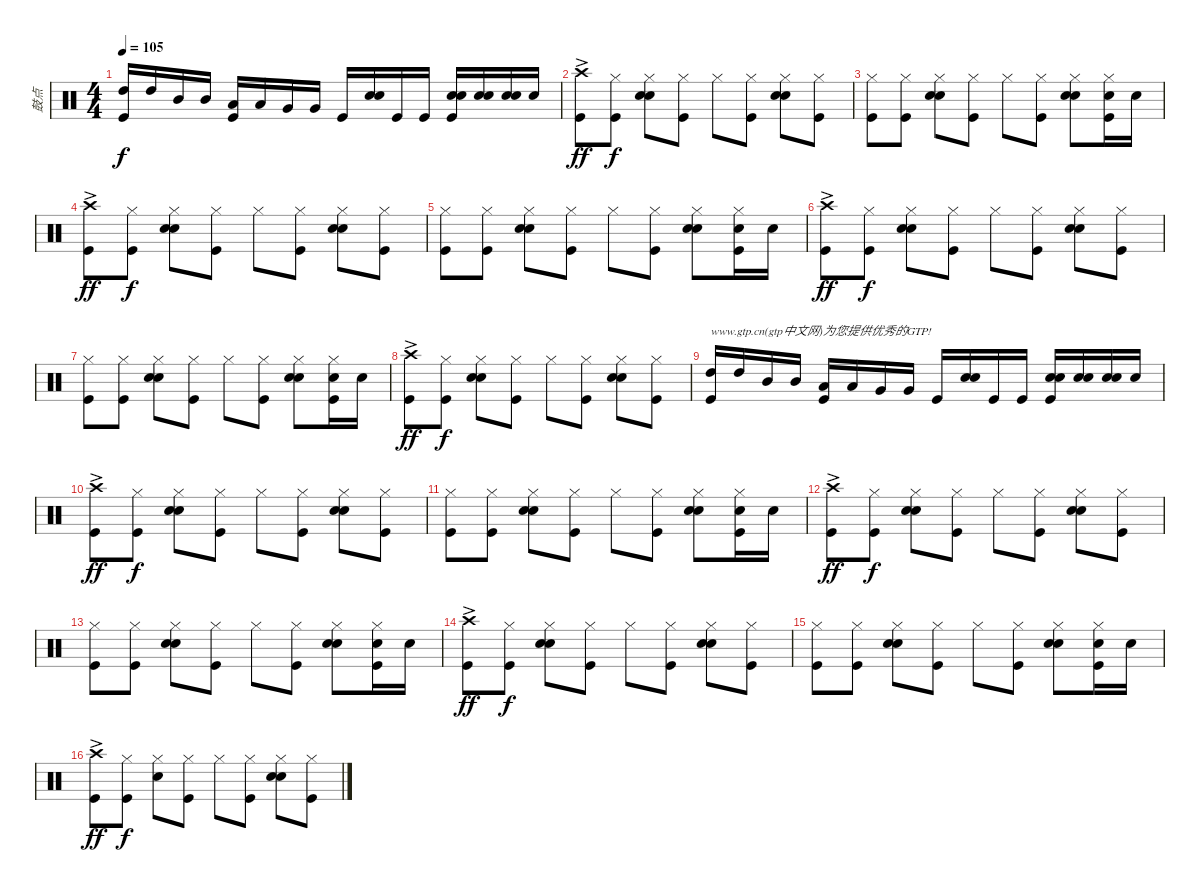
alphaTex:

\track ("鼓点" "鼓点") {instrument percussion}
\staff {score}
\articulation defaults
\ts (4 4)
\tempo 105
\clef neutral
\ks c
("High Tom (hit)" "Kick (hit)").16{dy f volume 10} "High Tom (hit)".16 "Mid Tom (hit)".16 "Mid Tom (hit)".16 ("Low Tom (hit)" "Kick (hit)").16 "Low Tom (hit)".16 "Very Low Tom (hit)".16 "Very Low Tom (hit)".16 "Kick (hit)".16 ("Electric Snare (hit)" "Snare (hit) 2").16 "Kick (hit)".16 "Kick (hit)".16 ("Snare (hit) 2" "Electric Snare (hit)" "Kick (hit)").16 ("Snare (hit) 2" "Electric Snare (hit)").16 ("Snare (hit) 2" "Electric Snare (hit)").16 "Electric Snare (hit)".16 |
("Crash high (hit)"{ac} "Kick (hit)").8{dy ff} ("Hi-Hat (closed)" "Kick (hit)").8{dy f} ("Hi-Hat (closed)" "Electric Snare (hit)" "Snare (hit) 2").8 ("Hi-Hat (closed)" "Kick (hit)").8 "Hi-Hat (closed)".8 ("Hi-Hat (closed)" "Kick (hit)").8 ("Hi-Hat (closed)" "Electric Snare (hit)" "Snare (hit) 2").8 ("Hi-Hat (closed)" "Kick (hit)").8 |
("Hi-Hat (closed)" "Kick (hit)").8 ("Hi-Hat (closed)" "Kick (hit)").8 ("Hi-Hat (closed)" "Electric Snare (hit)" "Snare (hit) 2").8 ("Hi-Hat (closed)" "Kick (hit)").8 "Hi-Hat (closed)".8 ("Hi-Hat (closed)" "Kick (hit)").8 ("Hi-Hat (closed)" "Electric Snare (hit)" "Snare (hit) 2").8 ("Hi-Hat (closed)" "Electric Snare (hit)" "Kick (hit)").16 "Electric Snare (hit)".16 |
("Crash high (hit)"{ac} "Kick (hit)").8{dy ff} ("Hi-Hat (closed)" "Kick (hit)").8{dy f} ("Hi-Hat (closed)" "Electric Snare (hit)" "Snare (hit) 2").8 ("Hi-Hat (closed)" "Kick (hit)").8 "Hi-Hat (closed)".8 ("Hi-Hat (closed)" "Kick (hit)").8 ("Hi-Hat (closed)" "Electric Snare (hit)" "Snare (hit) 2").8 ("Hi-Hat (closed)" "Kick (hit)").8 |
("Hi-Hat (closed)" "Kick (hit)").8 ("Hi-Hat (closed)" "Kick (hit)").8 ("Hi-Hat (closed)" "Electric Snare (hit)" "Snare (hit) 2").8 ("Hi-Hat (closed)" "Kick (hit)").8 "Hi-Hat (closed)".8 ("Hi-Hat (closed)" "Kick (hit)").8 ("Hi-Hat (closed)" "Electric Snare (hit)" "Snare (hit) 2").8 ("Hi-Hat (closed)" "Electric Snare (hit)" "Kick (hit)").16 "Electric Snare (hit)".16 |
("Crash high (hit)"{ac} "Kick (hit)").8{dy ff} ("Hi-Hat (closed)" "Kick (hit)").8{dy f} ("Hi-Hat (closed)" "Electric Snare (hit)" "Snare (hit) 2").8 ("Hi-Hat (closed)" "Kick (hit)").8 "Hi-Hat (closed)".8 ("Hi-Hat (closed)" "Kick (hit)").8 ("Hi-Hat (closed)" "Electric Snare (hit)" "Snare (hit) 2").8 ("Hi-Hat (closed)" "Kick (hit)").8 |
("Hi-Hat (closed)" "Kick (hit)").8 ("Hi-Hat (closed)" "Kick (hit)").8 ("Hi-Hat (closed)" "Electric Snare (hit)" "Snare (hit) 2").8 ("Hi-Hat (closed)" "Kick (hit)").8 "Hi-Hat (closed)".8 ("Hi-Hat (closed)" "Kick (hit)").8 ("Hi-Hat (closed)" "Electric Snare (hit)" "Snare (hit) 2").8 ("Hi-Hat (closed)" "Electric Snare (hit)" "Kick (hit)").16 "Electric Snare (hit)".16 |
("Crash high (hit)"{ac} "Kick (hit)").8{dy ff} ("Hi-Hat (closed)" "Kick (hit)").8{dy f} ("Hi-Hat (closed)" "Electric Snare (hit)" "Snare (hit) 2").8 ("Hi-Hat (closed)" "Kick (hit)").8 "Hi-Hat (closed)".8 ("Hi-Hat (closed)" "Kick (hit)").8 ("Hi-Hat (closed)" "Electric Snare (hit)" "Snare (hit) 2").8 ("Hi-Hat (closed)" "Kick (hit)").8 |
("High Tom (hit)" "Kick (hit)").16{txt "www.gtp.cn(gtp中文网)为您提供优秀的GTP!"} "High Tom (hit)".16 "Mid Tom (hit)".16 "Mid Tom (hit)".16 ("Low Tom (hit)" "Kick (hit)").16 "Low Tom (hit)".16 "Very Low Tom (hit)".16 "Very Low Tom (hit)".16 "Kick (hit)".16 ("Electric Snare (hit)" "Snare (hit) 2").16 "Kick (hit)".16 "Kick (hit)".16 ("Snare (hit) 2" "Electric Snare (hit)" "Kick (hit)").16 ("Snare (hit) 2" "Electric Snare (hit)").16 ("Snare (hit) 2" "Electric Snare (hit)").16 "Electric Snare (hit)".16 |
("Crash high (hit)"{ac} "Kick (hit)").8{dy ff} ("Hi-Hat (closed)" "Kick (hit)").8{dy f} ("Hi-Hat (closed)" "Electric Snare (hit)" "Snare (hit) 2").8 ("Hi-Hat (closed)" "Kick (hit)").8 "Hi-Hat (closed)".8 ("Hi-Hat (closed)" "Kick (hit)").8 ("Hi-Hat (closed)" "Electric Snare (hit)" "Snare (hit) 2").8 ("Hi-Hat (closed)" "Kick (hit)").8 |
("Hi-Hat (closed)" "Kick (hit)").8 ("Hi-Hat (closed)" "Kick (hit)").8 ("Hi-Hat (closed)" "Electric Snare (hit)" "Snare (hit) 2").8 ("Hi-Hat (closed)" "Kick (hit)").8 "Hi-Hat (closed)".8 ("Hi-Hat (closed)" "Kick (hit)").8 ("Hi-Hat (closed)" "Electric Snare (hit)" "Snare (hit) 2").8 ("Hi-Hat (closed)" "Electric Snare (hit)" "Kick (hit)").16 "Electric Snare (hit)".16 |
("Crash high (hit)"{ac} "Kick (hit)").8{dy ff} ("Hi-Hat (closed)" "Kick (hit)").8{dy f} ("Hi-Hat (closed)" "Electric Snare (hit)" "Snare (hit) 2").8 ("Hi-Hat (closed)" "Kick (hit)").8 "Hi-Hat (closed)".8 ("Hi-Hat (closed)" "Kick (hit)").8 ("Hi-Hat (closed)" "Electric Snare (hit)" "Snare (hit) 2").8 ("Hi-Hat (closed)" "Kick (hit)").8 |
("Hi-Hat (closed)" "Kick (hit)").8 ("Hi-Hat (closed)" "Kick (hit)").8 ("Hi-Hat (closed)" "Electric Snare (hit)" "Snare (hit) 2").8 ("Hi-Hat (closed)" "Kick (hit)").8 "Hi-Hat (closed)".8 ("Hi-Hat (closed)" "Kick (hit)").8 ("Hi-Hat (closed)" "Electric Snare (hit)" "Snare (hit) 2").8 ("Hi-Hat (closed)" "Electric Snare (hit)" "Kick (hit)").16 "Electric Snare (hit)".16 |
("Crash high (hit)"{ac} "Kick (hit)").8{dy ff} ("Hi-Hat (closed)" "Kick (hit)").8{dy f} ("Hi-Hat (closed)" "Electric Snare (hit)" "Snare (hit) 2").8 ("Hi-Hat (closed)" "Kick (hit)").8 "Hi-Hat (closed)".8 ("Hi-Hat (closed)" "Kick (hit)").8 ("Hi-Hat (closed)" "Electric Snare (hit)" "Snare (hit) 2").8 ("Hi-Hat (closed)" "Kick (hit)").8 |
("Hi-Hat (closed)" "Kick (hit)").8 ("Hi-Hat (closed)" "Kick (hit)").8 ("Hi-Hat (closed)" "Electric Snare (hit)" "Snare (hit) 2").8 ("Hi-Hat (closed)" "Kick (hit)").8 "Hi-Hat (closed)".8 ("Hi-Hat (closed)" "Kick (hit)").8 ("Hi-Hat (closed)" "Electric Snare (hit)" "Snare (hit) 2").8 ("Hi-Hat (closed)" "Electric Snare (hit)" "Kick (hit)").16 "Electric Snare (hit)".16 |
("Crash high (hit)"{ac} "Kick (hit)").8{dy ff} ("Hi-Hat (closed)" "Kick (hit)").8{dy f} ("Hi-Hat (closed)" "Electric Snare (hit)").8 ("Hi-Hat (closed)" "Kick (hit)").8 "Hi-Hat (closed)".8 ("Hi-Hat (closed)" "Kick (hit)").8 ("Hi-Hat (closed)" "Electric Snare (hit)" "Snare (hit) 2").8 ("Hi-Hat (closed)" "Kick (hit)").8
